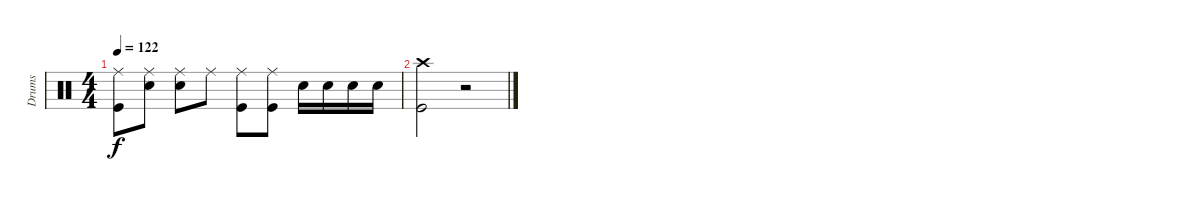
\track ("Drums" "Drums") {instrument percussion}
\staff {score}
\articulation defaults
\ts (4 4)
\tempo 122
\clef neutral
\ks c
("Ride (middle)" "Kick (hit)").8{dy f} ("Ride (middle)" "Electric Snare (hit)").8 ("Ride (middle)" "Electric Snare (hit)").8 "Ride (middle)".8 ("Ride (middle)" "Kick (hit)").8 ("Ride (middle)" "Kick (hit)").8 "Electric Snare (hit)".16 "Electric Snare (hit)".16 "Electric Snare (hit)".16 "Electric Snare (hit)".16 |
("Crash high (hit)" "Kick (hit)").2 r.2
